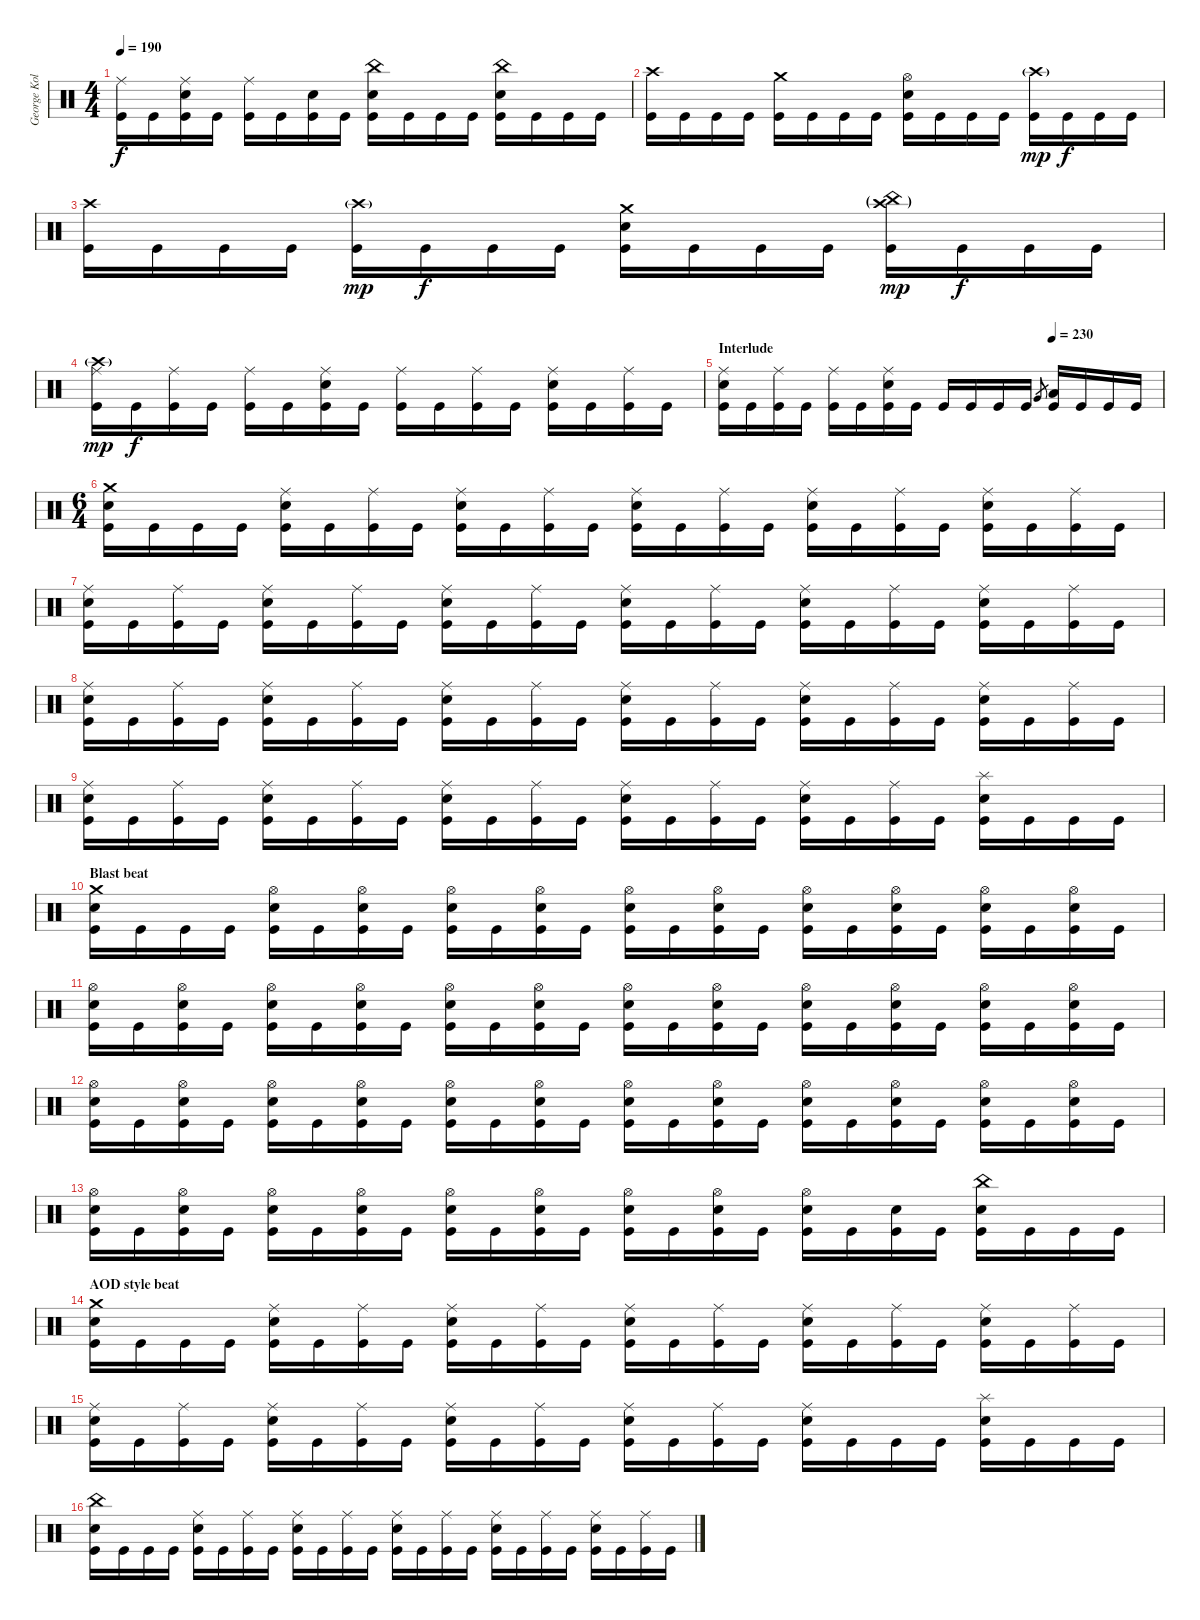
\track ("George Kollias" "George Kol") {instrument percussion}
\staff {score}
\articulation defaults
\ts (4 4)
\tempo 190
\clef neutral
\ks c
("Ride (middle)" "Kick (hit)").16{dy f} "Kick (hit)".16 ("Ride (middle)" "Snare (hit) 2" "Kick (hit)").16 "Kick (hit)".16 ("Ride (middle)" "Kick (hit)").16 "Kick (hit)".16 ("Snare (hit) 2" "Kick (hit)").16 "Kick (hit)".16 ("China (hit)" "Snare (hit) 2" "Kick (hit)").16 "Kick (hit)".16 "Kick (hit)".16 "Kick (hit)".16 ("China (hit)" "Snare (hit) 2" "Kick (hit)").16 "Kick (hit)".16 "Kick (hit)".16 "Kick (hit)".16 |
("Crash high (hit)" "Kick (hit)").16 "Kick (hit)".16 "Kick (hit)".16 "Kick (hit)".16 ("Crash medium (hit)" "Kick (hit)").16 "Kick (hit)".16 "Kick (hit)".16 "Kick (hit)".16 ("Hi-Hat (open)" "Snare (hit) 2" "Kick (hit)").16 "Kick (hit)".16 "Kick (hit)".16 "Kick (hit)".16 ("Crash high (hit)"{g} "Kick (hit)").16{dy mp} "Kick (hit)".16{dy f} "Kick (hit)".16 "Kick (hit)".16 |
("Crash high (hit)" "Kick (hit)").16 "Kick (hit)".16 "Kick (hit)".16 "Kick (hit)".16 ("Crash high (hit)"{g} "Kick (hit)").16{dy mp} "Kick (hit)".16{dy f} "Kick (hit)".16 "Kick (hit)".16 ("Crash medium (hit)" "Snare (hit) 2" "Kick (hit)").16 "Kick (hit)".16 "Kick (hit)".16 "Kick (hit)".16 ("Crash high (hit)"{g} "China (hit)"{g} "Kick (hit)").16{dy mp} "Kick (hit)".16{dy f} "Kick (hit)".16 "Kick (hit)".16 |
("Crash high (hit)"{g} "Ride (middle)" "Kick (hit)").16{dy mp} "Kick (hit)".16{dy f} ("Ride (middle)" "Kick (hit)").16 "Kick (hit)".16 ("Ride (middle)" "Kick (hit)").16 "Kick (hit)".16 ("Ride (middle)" "Snare (hit) 2" "Kick (hit)").16 "Kick (hit)".16 ("Ride (middle)" "Kick (hit)").16 "Kick (hit)".16 ("Ride (middle)" "Kick (hit)").16 "Kick (hit)".16 ("Ride (middle)" "Snare (hit) 2" "Kick (hit)").16 "Kick (hit)".16 ("Ride (middle)" "Kick (hit)").16 "Kick (hit)".16 |
\section ("" "Interlude")
\tempo (230 0.75)
("Ride (middle)" "Snare (hit) 2" "Kick (hit)").16 "Kick (hit)".16 ("Ride (middle)" "Kick (hit)").16 "Kick (hit)".16 ("Ride (middle)" "Kick (hit)").16 "Kick (hit)".16 ("Ride (middle)" "Snare (hit) 2" "Kick (hit)").16 "Kick (hit)".16 "Kick (hit)".16 "Kick (hit)".16 "Kick (hit)".16 "Kick (hit)".16 "Very Low Tom (hit)".8{gr} ("Low Tom (hit)" "Kick (hit)").16 "Kick (hit)".16 "Kick (hit)".16 "Kick (hit)".16 |
\ts (6 4)
("Crash medium (hit)" "Snare (hit) 2" "Kick (hit)").16 "Kick (hit)".16 "Kick (hit)".16 "Kick (hit)".16 ("Ride (middle)" "Snare (hit) 2" "Kick (hit)").16 "Kick (hit)".16 ("Ride (middle)" "Kick (hit)").16 "Kick (hit)".16 ("Ride (middle)" "Snare (hit) 2" "Kick (hit)").16 "Kick (hit)".16 ("Ride (middle)" "Kick (hit)").16 "Kick (hit)".16 ("Ride (middle)" "Snare (hit) 2" "Kick (hit)").16 "Kick (hit)".16 ("Ride (middle)" "Kick (hit)").16 "Kick (hit)".16 ("Ride (middle)" "Snare (hit) 2" "Kick (hit)").16 "Kick (hit)".16 ("Ride (middle)" "Kick (hit)").16 "Kick (hit)".16 ("Ride (middle)" "Snare (hit) 2" "Kick (hit)").16 "Kick (hit)".16 ("Ride (middle)" "Kick (hit)").16 "Kick (hit)".16 |
("Ride (middle)" "Snare (hit) 2" "Kick (hit)").16 "Kick (hit)".16 ("Ride (middle)" "Kick (hit)").16 "Kick (hit)".16 ("Ride (middle)" "Snare (hit) 2" "Kick (hit)").16 "Kick (hit)".16 ("Ride (middle)" "Kick (hit)").16 "Kick (hit)".16 ("Ride (middle)" "Snare (hit) 2" "Kick (hit)").16 "Kick (hit)".16 ("Ride (middle)" "Kick (hit)").16 "Kick (hit)".16 ("Ride (middle)" "Snare (hit) 2" "Kick (hit)").16 "Kick (hit)".16 ("Ride (middle)" "Kick (hit)").16 "Kick (hit)".16 ("Ride (middle)" "Snare (hit) 2" "Kick (hit)").16 "Kick (hit)".16 ("Ride (middle)" "Kick (hit)").16 "Kick (hit)".16 ("Ride (middle)" "Snare (hit) 2" "Kick (hit)").16 "Kick (hit)".16 ("Ride (middle)" "Kick (hit)").16 "Kick (hit)".16 |
("Ride (middle)" "Snare (hit) 2" "Kick (hit)").16 "Kick (hit)".16 ("Ride (middle)" "Kick (hit)").16 "Kick (hit)".16 ("Ride (middle)" "Snare (hit) 2" "Kick (hit)").16 "Kick (hit)".16 ("Ride (middle)" "Kick (hit)").16 "Kick (hit)".16 ("Ride (middle)" "Snare (hit) 2" "Kick (hit)").16 "Kick (hit)".16 ("Ride (middle)" "Kick (hit)").16 "Kick (hit)".16 ("Ride (middle)" "Snare (hit) 2" "Kick (hit)").16 "Kick (hit)".16 ("Ride (middle)" "Kick (hit)").16 "Kick (hit)".16 ("Ride (middle)" "Snare (hit) 2" "Kick (hit)").16 "Kick (hit)".16 ("Ride (middle)" "Kick (hit)").16 "Kick (hit)".16 ("Ride (middle)" "Snare (hit) 2" "Kick (hit)").16 "Kick (hit)".16 ("Ride (middle)" "Kick (hit)").16 "Kick (hit)".16 |
("Ride (middle)" "Snare (hit) 2" "Kick (hit)").16 "Kick (hit)".16 ("Ride (middle)" "Kick (hit)").16 "Kick (hit)".16 ("Ride (middle)" "Snare (hit) 2" "Kick (hit)").16 "Kick (hit)".16 ("Ride (middle)" "Kick (hit)").16 "Kick (hit)".16 ("Ride (middle)" "Snare (hit) 2" "Kick (hit)").16 "Kick (hit)".16 ("Ride (middle)" "Kick (hit)").16 "Kick (hit)".16 ("Ride (middle)" "Snare (hit) 2" "Kick (hit)").16 "Kick (hit)".16 ("Ride (middle)" "Kick (hit)").16 "Kick (hit)".16 ("Ride (middle)" "Snare (hit) 2" "Kick (hit)").16 "Kick (hit)".16 ("Ride (middle)" "Kick (hit)").16 "Kick (hit)".16 ("Splash (hit)" "Snare (hit) 2" "Kick (hit)").16 "Kick (hit)".16 "Kick (hit)".16 "Kick (hit)".16 |
\section ("" "Blast beat")
("Crash medium (hit)" "Snare (hit) 2" "Kick (hit)").16 "Kick (hit)".16 "Kick (hit)".16 "Kick (hit)".16 ("Hi-Hat (open)" "Snare (hit) 2" "Kick (hit)").16 "Kick (hit)".16 ("Hi-Hat (open)" "Snare (hit) 2" "Kick (hit)").16 "Kick (hit)".16 ("Hi-Hat (open)" "Snare (hit) 2" "Kick (hit)").16 "Kick (hit)".16 ("Hi-Hat (open)" "Snare (hit) 2" "Kick (hit)").16 "Kick (hit)".16 ("Hi-Hat (open)" "Snare (hit) 2" "Kick (hit)").16 "Kick (hit)".16 ("Hi-Hat (open)" "Snare (hit) 2" "Kick (hit)").16 "Kick (hit)".16 ("Hi-Hat (open)" "Snare (hit) 2" "Kick (hit)").16 "Kick (hit)".16 ("Hi-Hat (open)" "Snare (hit) 2" "Kick (hit)").16 "Kick (hit)".16 ("Hi-Hat (open)" "Snare (hit) 2" "Kick (hit)").16 "Kick (hit)".16 ("Hi-Hat (open)" "Snare (hit) 2" "Kick (hit)").16 "Kick (hit)".16 |
("Hi-Hat (open)" "Snare (hit) 2" "Kick (hit)").16 "Kick (hit)".16 ("Hi-Hat (open)" "Snare (hit) 2" "Kick (hit)").16 "Kick (hit)".16 ("Hi-Hat (open)" "Snare (hit) 2" "Kick (hit)").16 "Kick (hit)".16 ("Hi-Hat (open)" "Snare (hit) 2" "Kick (hit)").16 "Kick (hit)".16 ("Hi-Hat (open)" "Snare (hit) 2" "Kick (hit)").16 "Kick (hit)".16 ("Hi-Hat (open)" "Snare (hit) 2" "Kick (hit)").16 "Kick (hit)".16 ("Hi-Hat (open)" "Snare (hit) 2" "Kick (hit)").16 "Kick (hit)".16 ("Hi-Hat (open)" "Snare (hit) 2" "Kick (hit)").16 "Kick (hit)".16 ("Hi-Hat (open)" "Snare (hit) 2" "Kick (hit)").16 "Kick (hit)".16 ("Hi-Hat (open)" "Snare (hit) 2" "Kick (hit)").16 "Kick (hit)".16 ("Hi-Hat (open)" "Snare (hit) 2" "Kick (hit)").16 "Kick (hit)".16 ("Hi-Hat (open)" "Snare (hit) 2" "Kick (hit)").16 "Kick (hit)".16 |
("Hi-Hat (open)" "Snare (hit) 2" "Kick (hit)").16 "Kick (hit)".16 ("Hi-Hat (open)" "Snare (hit) 2" "Kick (hit)").16 "Kick (hit)".16 ("Hi-Hat (open)" "Snare (hit) 2" "Kick (hit)").16 "Kick (hit)".16 ("Hi-Hat (open)" "Snare (hit) 2" "Kick (hit)").16 "Kick (hit)".16 ("Hi-Hat (open)" "Snare (hit) 2" "Kick (hit)").16 "Kick (hit)".16 ("Hi-Hat (open)" "Snare (hit) 2" "Kick (hit)").16 "Kick (hit)".16 ("Hi-Hat (open)" "Snare (hit) 2" "Kick (hit)").16 "Kick (hit)".16 ("Hi-Hat (open)" "Snare (hit) 2" "Kick (hit)").16 "Kick (hit)".16 ("Hi-Hat (open)" "Snare (hit) 2" "Kick (hit)").16 "Kick (hit)".16 ("Hi-Hat (open)" "Snare (hit) 2" "Kick (hit)").16 "Kick (hit)".16 ("Hi-Hat (open)" "Snare (hit) 2" "Kick (hit)").16 "Kick (hit)".16 ("Hi-Hat (open)" "Snare (hit) 2" "Kick (hit)").16 "Kick (hit)".16 |
("Hi-Hat (open)" "Snare (hit) 2" "Kick (hit)").16 "Kick (hit)".16 ("Hi-Hat (open)" "Snare (hit) 2" "Kick (hit)").16 "Kick (hit)".16 ("Hi-Hat (open)" "Snare (hit) 2" "Kick (hit)").16 "Kick (hit)".16 ("Hi-Hat (open)" "Snare (hit) 2" "Kick (hit)").16 "Kick (hit)".16 ("Hi-Hat (open)" "Snare (hit) 2" "Kick (hit)").16 "Kick (hit)".16 ("Hi-Hat (open)" "Snare (hit) 2" "Kick (hit)").16 "Kick (hit)".16 ("Hi-Hat (open)" "Snare (hit) 2" "Kick (hit)").16 "Kick (hit)".16 ("Hi-Hat (open)" "Snare (hit) 2" "Kick (hit)").16 "Kick (hit)".16 ("Hi-Hat (open)" "Snare (hit) 2" "Kick (hit)").16 "Kick (hit)".16 ("Snare (hit) 2" "Kick (hit)").16 "Kick (hit)".16 ("China (hit)" "Snare (hit) 2" "Kick (hit)").16 "Kick (hit)".16 "Kick (hit)".16 "Kick (hit)".16 |
\section ("" "AOD style beat")
("Crash medium (hit)" "Snare (hit) 2" "Kick (hit)").16 "Kick (hit)".16 "Kick (hit)".16 "Kick (hit)".16 ("Ride (middle)" "Snare (hit) 2" "Kick (hit)").16 "Kick (hit)".16 ("Ride (middle)" "Kick (hit)").16 "Kick (hit)".16 ("Ride (middle)" "Snare (hit) 2" "Kick (hit)").16 "Kick (hit)".16 ("Ride (middle)" "Kick (hit)").16 "Kick (hit)".16 ("Ride (middle)" "Snare (hit) 2" "Kick (hit)").16 "Kick (hit)".16 ("Ride (middle)" "Kick (hit)").16 "Kick (hit)".16 ("Ride (middle)" "Snare (hit) 2" "Kick (hit)").16 "Kick (hit)".16 ("Ride (middle)" "Kick (hit)").16 "Kick (hit)".16 ("Ride (middle)" "Snare (hit) 2" "Kick (hit)").16 "Kick (hit)".16 ("Ride (middle)" "Kick (hit)").16 "Kick (hit)".16 |
("Ride (middle)" "Snare (hit) 2" "Kick (hit)").16 "Kick (hit)".16 ("Ride (middle)" "Kick (hit)").16 "Kick (hit)".16 ("Ride (middle)" "Snare (hit) 2" "Kick (hit)").16 "Kick (hit)".16 ("Ride (middle)" "Kick (hit)").16 "Kick (hit)".16 ("Ride (middle)" "Snare (hit) 2" "Kick (hit)").16 "Kick (hit)".16 ("Ride (middle)" "Kick (hit)").16 "Kick (hit)".16 ("Ride (middle)" "Snare (hit) 2" "Kick (hit)").16 "Kick (hit)".16 ("Ride (middle)" "Kick (hit)").16 "Kick (hit)".16 ("Ride (middle)" "Snare (hit) 2" "Kick (hit)").16 "Kick (hit)".16 "Kick (hit)".16 "Kick (hit)".16 ("Splash (hit)" "Snare (hit) 2" "Kick (hit)").16 "Kick (hit)".16 "Kick (hit)".16 "Kick (hit)".16 |
("China (hit)" "Snare (hit) 2" "Kick (hit)").16 "Kick (hit)".16 "Kick (hit)".16 "Kick (hit)".16 ("Ride (middle)" "Snare (hit) 2" "Kick (hit)").16 "Kick (hit)".16 ("Ride (middle)" "Kick (hit)").16 "Kick (hit)".16 ("Ride (middle)" "Snare (hit) 2" "Kick (hit)").16 "Kick (hit)".16 ("Ride (middle)" "Kick (hit)").16 "Kick (hit)".16 ("Ride (middle)" "Snare (hit) 2" "Kick (hit)").16 "Kick (hit)".16 ("Ride (middle)" "Kick (hit)").16 "Kick (hit)".16 ("Ride (middle)" "Snare (hit) 2" "Kick (hit)").16 "Kick (hit)".16 ("Ride (middle)" "Kick (hit)").16 "Kick (hit)".16 ("Ride (middle)" "Snare (hit) 2" "Kick (hit)").16 "Kick (hit)".16 ("Ride (middle)" "Kick (hit)").16 "Kick (hit)".16
